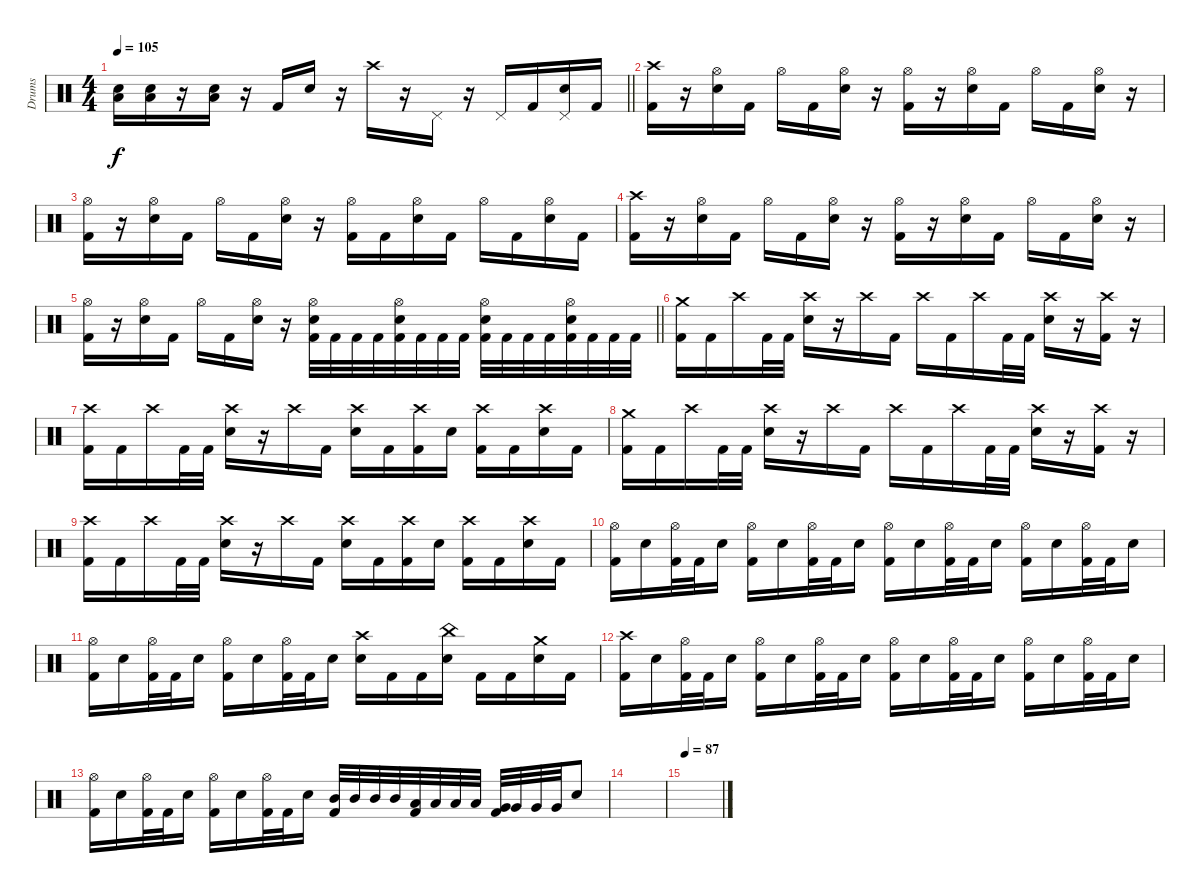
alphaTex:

\track ("Drums" "Drums") {instrument percussion}
\staff
\articulation defaults
\ts (4 4)
\tempo 105
\clef neutral
\barLineRight lightlight
\ks c
("Low Floor Tom (hit)" "Electric Snare (hit)").16{dy f} ("Low Floor Tom (hit)" "Electric Snare (hit)").16 r.16 ("Low Floor Tom (hit)" "Electric Snare (hit)").16 r.16 "Kick (hit) 2".16 "Electric Snare (hit)".16 r.16 "Crash high (hit)".16 r.16 "Pedal Hi-Hat (hit)".16 r.16 "Pedal Hi-Hat (hit)".16 "Kick (hit) 2".16 ("Pedal Hi-Hat (hit)" "Electric Snare (hit)").16 "Kick (hit) 2".16 |
("Crash high (hit)" "Kick (hit) 2").16 r.16 ("Hi-Hat (open)" "Electric Snare (hit)").16 "Kick (hit) 2".16 "Hi-Hat (open)".16 "Kick (hit) 2".16 ("Hi-Hat (open)" "Electric Snare (hit)").16 r.16 ("Hi-Hat (open)" "Kick (hit) 2").16 r.16 ("Hi-Hat (open)" "Electric Snare (hit)").16 "Kick (hit) 2".16 "Hi-Hat (open)".16 "Kick (hit) 2".16 ("Hi-Hat (open)" "Electric Snare (hit)").16 r.16 |
("Hi-Hat (open)" "Kick (hit) 2").16 r.16 ("Hi-Hat (open)" "Electric Snare (hit)").16 "Kick (hit) 2".16 "Hi-Hat (open)".16 "Kick (hit) 2".16 ("Hi-Hat (open)" "Electric Snare (hit)").16 r.16 ("Hi-Hat (open)" "Kick (hit) 2").16 "Kick (hit) 2".16 ("Hi-Hat (open)" "Electric Snare (hit)").16 "Kick (hit) 2".16 "Hi-Hat (open)".16 "Kick (hit) 2".16 ("Hi-Hat (open)" "Electric Snare (hit)").16 "Kick (hit) 2".16 |
("Crash high (hit)" "Kick (hit) 2").16 r.16 ("Hi-Hat (open)" "Electric Snare (hit)").16 "Kick (hit) 2".16 "Hi-Hat (open)".16 "Kick (hit) 2".16 ("Hi-Hat (open)" "Electric Snare (hit)").16 r.16 ("Hi-Hat (open)" "Kick (hit) 2").16 r.16 ("Hi-Hat (open)" "Electric Snare (hit)").16 "Kick (hit) 2".16 "Hi-Hat (open)".16 "Kick (hit) 2".16 ("Hi-Hat (open)" "Electric Snare (hit)").16 r.16 |
\barLineRight lightlight
("Hi-Hat (open)" "Kick (hit) 2").16 r.16 ("Hi-Hat (open)" "Electric Snare (hit)").16 "Kick (hit) 2".16 "Hi-Hat (open)".16 "Kick (hit) 2".16 ("Hi-Hat (open)" "Electric Snare (hit)").16 r.16 ("Hi-Hat (open)" "Electric Snare (hit)" "Kick (hit) 2").32 "Kick (hit) 2".32 "Kick (hit) 2".32 "Kick (hit) 2".32 ("Hi-Hat (open)" "Electric Snare (hit)" "Kick (hit) 2").32 "Kick (hit) 2".32 "Kick (hit) 2".32 "Kick (hit) 2".32 ("Hi-Hat (open)" "Electric Snare (hit)" "Kick (hit) 2").32 "Kick (hit) 2".32 "Kick (hit) 2".32 "Kick (hit) 2".32 ("Hi-Hat (open)" "Electric Snare (hit)" "Kick (hit) 2").32 "Kick (hit) 2".32 "Kick (hit) 2".32 "Kick (hit) 2".32 |
("Crash medium (hit)" "Kick (hit) 2").16 "Kick (hit) 2".16 "Crash high (hit)".16 "Kick (hit) 2".32 "Kick (hit) 2".32 ("Crash high (hit)" "Electric Snare (hit)").16 r.16 "Crash high (hit)".16 "Kick (hit) 2".16 "Crash high (hit)".16 "Kick (hit) 2".16 "Crash high (hit)".16 "Kick (hit) 2".32 "Kick (hit) 2".32 ("Crash high (hit)" "Electric Snare (hit)").16 r.16 ("Crash high (hit)" "Kick (hit) 2").16 r.16 |
("Crash high (hit)" "Kick (hit) 2").16 "Kick (hit) 2".16 "Crash high (hit)".16 "Kick (hit) 2".32 "Kick (hit) 2".32 ("Crash high (hit)" "Electric Snare (hit)").16 r.16 "Crash high (hit)".16 "Kick (hit) 2".16 ("Crash high (hit)" "Electric Snare (hit)").16 "Kick (hit) 2".16 ("Crash high (hit)" "Kick (hit) 2").16 "Electric Snare (hit)".16 ("Crash high (hit)" "Kick (hit) 2").16 "Kick (hit) 2".16 ("Crash high (hit)" "Electric Snare (hit)").16 "Kick (hit) 2".16 |
("Crash medium (hit)" "Kick (hit) 2").16 "Kick (hit) 2".16 "Crash high (hit)".16 "Kick (hit) 2".32 "Kick (hit) 2".32 ("Crash high (hit)" "Electric Snare (hit)").16 r.16 "Crash high (hit)".16 "Kick (hit) 2".16 "Crash high (hit)".16 "Kick (hit) 2".16 "Crash high (hit)".16 "Kick (hit) 2".32 "Kick (hit) 2".32 ("Crash high (hit)" "Electric Snare (hit)").16 r.16 ("Crash high (hit)" "Kick (hit) 2").16 r.16 |
("Crash high (hit)" "Kick (hit) 2").16 "Kick (hit) 2".16 "Crash high (hit)".16 "Kick (hit) 2".32 "Kick (hit) 2".32 ("Crash high (hit)" "Electric Snare (hit)").16 r.16 "Crash high (hit)".16 "Kick (hit) 2".16 ("Crash high (hit)" "Electric Snare (hit)").16 "Kick (hit) 2".16 ("Crash high (hit)" "Kick (hit) 2").16 "Electric Snare (hit)".16 ("Crash high (hit)" "Kick (hit) 2").16 "Kick (hit) 2".16 ("Crash high (hit)" "Electric Snare (hit)").16 "Kick (hit) 2".16 |
("Hi-Hat (open)" "Kick (hit) 2").16 "Electric Snare (hit)".16 ("Hi-Hat (open)" "Kick (hit) 2").32 "Kick (hit) 2".32 "Electric Snare (hit)".16 ("Hi-Hat (open)" "Kick (hit) 2").16 "Electric Snare (hit)".16 ("Hi-Hat (open)" "Kick (hit) 2").32 "Kick (hit) 2".32 "Electric Snare (hit)".16 ("Hi-Hat (open)" "Kick (hit) 2").16 "Electric Snare (hit)".16 ("Hi-Hat (open)" "Kick (hit) 2").32 "Kick (hit) 2".32 "Electric Snare (hit)".16 ("Hi-Hat (open)" "Kick (hit) 2").16 "Electric Snare (hit)".16 ("Hi-Hat (open)" "Kick (hit) 2").32 "Kick (hit) 2".32 "Electric Snare (hit)".16 |
("Hi-Hat (open)" "Kick (hit) 2").16 "Electric Snare (hit)".16 ("Hi-Hat (open)" "Kick (hit) 2").32 "Kick (hit) 2".32 "Electric Snare (hit)".16 ("Hi-Hat (open)" "Kick (hit) 2").16 "Electric Snare (hit)".16 ("Hi-Hat (open)" "Kick (hit) 2").32 "Kick (hit) 2".32 "Electric Snare (hit)".16 ("Crash high (hit)" "Electric Snare (hit)").16 "Kick (hit) 2".16 "Kick (hit) 2".16 ("China (hit)" "Electric Snare (hit)").16 "Kick (hit) 2".16 "Kick (hit) 2".16 ("Crash medium (hit)" "Electric Snare (hit)").16 "Kick (hit) 2".16 |
("Crash high (hit)" "Kick (hit) 2").16 "Electric Snare (hit)".16 ("Hi-Hat (open)" "Kick (hit) 2").32 "Kick (hit) 2".32 "Electric Snare (hit)".16 ("Hi-Hat (open)" "Kick (hit) 2").16 "Electric Snare (hit)".16 ("Hi-Hat (open)" "Kick (hit) 2").32 "Kick (hit) 2".32 "Electric Snare (hit)".16 ("Hi-Hat (open)" "Kick (hit) 2").16 "Electric Snare (hit)".16 ("Hi-Hat (open)" "Kick (hit) 2").32 "Kick (hit) 2".32 "Electric Snare (hit)".16 ("Hi-Hat (open)" "Kick (hit) 2").16 "Electric Snare (hit)".16 ("Hi-Hat (open)" "Kick (hit) 2").32 "Kick (hit) 2".32 "Electric Snare (hit)".16 |
("Hi-Hat (open)" "Kick (hit) 2").16 "Electric Snare (hit)".16 ("Hi-Hat (open)" "Kick (hit) 2").32 "Kick (hit) 2".32 "Electric Snare (hit)".16 ("Hi-Hat (open)" "Kick (hit) 2").16 "Electric Snare (hit)".16 ("Hi-Hat (open)" "Kick (hit) 2").32 "Kick (hit) 2".32 "Electric Snare (hit)".16 ("Mid Tom (hit)" "Kick (hit) 2").32 "Mid Tom (hit)".32 "Mid Tom (hit)".32 "Mid Tom (hit)".32 ("Low Tom (hit)" "Kick (hit) 2").32 "Low Tom (hit)".32 "Low Tom (hit)".32 "Low Tom (hit)".32 ("Very Low Tom (hit)" "Kick (hit) 2").32 "Very Low Tom (hit)".32 "Very Low Tom (hit)".32 "Very Low Tom (hit)".32 "Electric Snare (hit)".8 |
|
\tempo 87
